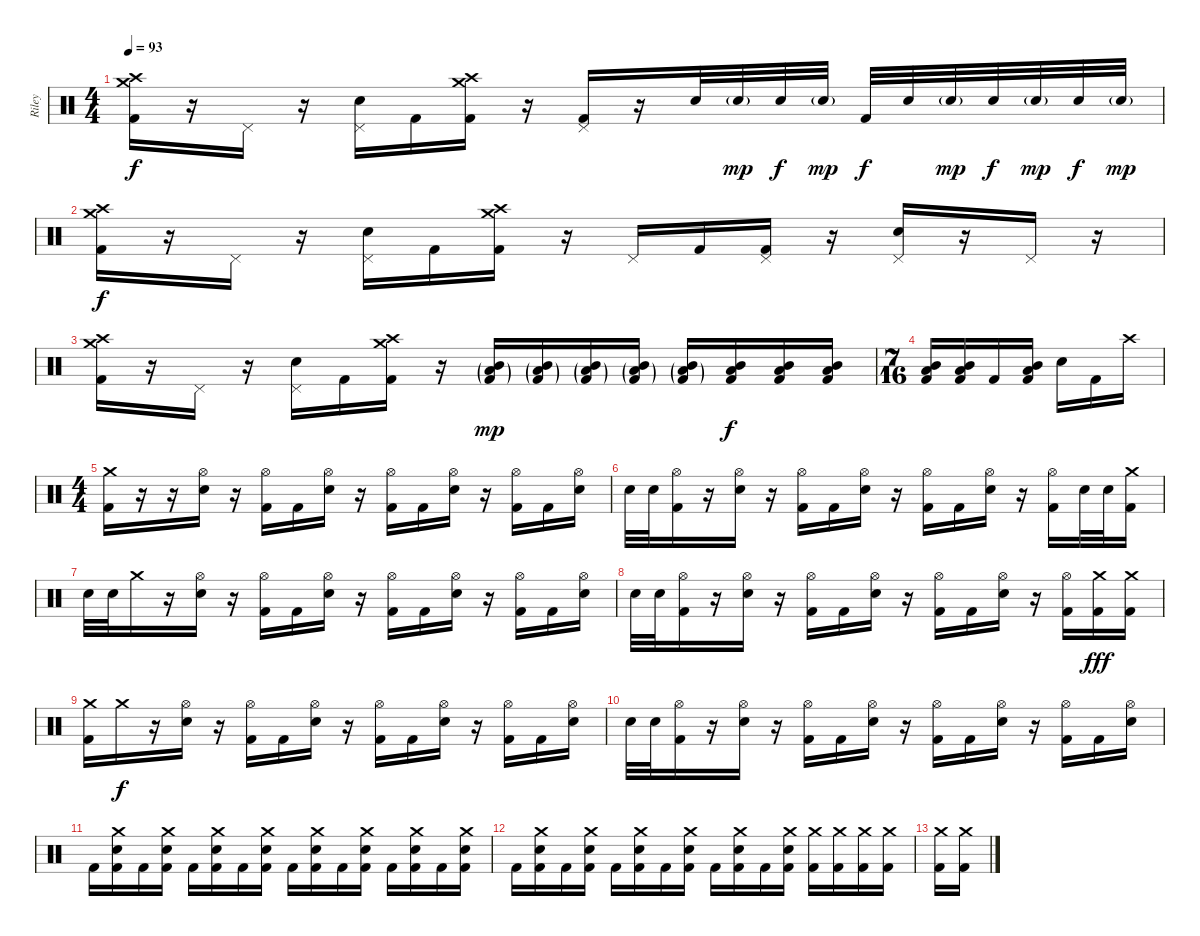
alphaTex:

\track ("Riley" "Riley") {instrument percussion}
\staff {score}
\articulation defaults
\ts (4 4)
\tempo 93
\clef neutral
\ks c
("Crash high (hit)" "Crash medium (hit)" "Kick (hit) 2").16{dy f} r.16 "Pedal Hi-Hat (hit)".16 r.16 ("Pedal Hi-Hat (hit)" "Electric Snare (hit)").16 "Kick (hit) 2".16 ("Crash high (hit)" "Crash medium (hit)" "Kick (hit) 2").16 r.16 ("Pedal Hi-Hat (hit)" "Kick (hit) 2").16 r.16 "Electric Snare (hit)".32 "Electric Snare (hit)"{g}.32{dy mp} "Electric Snare (hit)".32{dy f} "Electric Snare (hit)"{g}.32{dy mp} "Kick (hit) 2".32{dy f} "Electric Snare (hit)".32 "Electric Snare (hit)"{g}.32{dy mp} "Electric Snare (hit)".32{dy f} "Electric Snare (hit)"{g}.32{dy mp} "Electric Snare (hit)".32{dy f} "Electric Snare (hit)"{g}.32{dy mp} |
("Crash high (hit)" "Crash medium (hit)" "Kick (hit) 2").16{dy f} r.16 "Pedal Hi-Hat (hit)".16 r.16 ("Pedal Hi-Hat (hit)" "Electric Snare (hit)").16 "Kick (hit) 2".16 ("Crash high (hit)" "Crash medium (hit)" "Kick (hit) 2").16 r.16 "Pedal Hi-Hat (hit)".16 "Kick (hit) 2".16 ("Pedal Hi-Hat (hit)" "Kick (hit) 2").16 r.16 ("Pedal Hi-Hat (hit)" "Electric Snare (hit)").16 r.16 "Pedal Hi-Hat (hit)".16 r.16 |
("Crash high (hit)" "Crash medium (hit)" "Kick (hit) 2").16 r.16 "Pedal Hi-Hat (hit)".16 r.16 ("Pedal Hi-Hat (hit)" "Electric Snare (hit)").16 "Kick (hit) 2".16 ("Crash high (hit)" "Crash medium (hit)" "Kick (hit) 2").16 r.16 ("Mid Tom (hit)"{g} "Low Tom (hit)"{g} "Kick (hit) 2"{g}).16{dy mp} ("Mid Tom (hit)"{g} "Low Tom (hit)"{g} "Kick (hit) 2"{g}).16 ("Mid Tom (hit)"{g} "Low Tom (hit)"{g} "Kick (hit) 2"{g}).16 ("Mid Tom (hit)"{g} "Low Tom (hit)"{g} "Kick (hit) 2"{g}).16 ("Mid Tom (hit)"{g} "Low Tom (hit)"{g} "Kick (hit) 2"{g}).16 ("Mid Tom (hit)" "Low Tom (hit)" "Kick (hit) 2").16{dy f} ("Mid Tom (hit)" "Low Tom (hit)" "Kick (hit) 2").16 ("Mid Tom (hit)" "Low Tom (hit)" "Kick (hit) 2").16 |
\ts (7 16)
("Mid Tom (hit)" "Low Tom (hit)" "Kick (hit) 2").16 ("Mid Tom (hit)" "Low Tom (hit)" "Kick (hit) 2").16 "Kick (hit) 2".16 ("Mid Tom (hit)" "Low Tom (hit)" "Kick (hit) 2").16 "Electric Snare (hit)".16 "Kick (hit) 2".16 "Crash high (hit)".16 |
\ts (4 4)
("Crash medium (hit)" "Kick (hit) 2").16 r.16 r.16 ("Hi-Hat (open)" "Electric Snare (hit)").16 r.16 ("Hi-Hat (open)" "Kick (hit) 2").16 "Kick (hit) 2".16 ("Hi-Hat (open)" "Electric Snare (hit)").16 r.16 ("Hi-Hat (open)" "Kick (hit) 2").16 "Kick (hit) 2".16 ("Hi-Hat (open)" "Electric Snare (hit)").16 r.16 ("Hi-Hat (open)" "Kick (hit) 2").16 "Kick (hit) 2".16 ("Hi-Hat (open)" "Electric Snare (hit)").16 |
"Electric Snare (hit)".32 "Electric Snare (hit)".32 ("Hi-Hat (open)" "Kick (hit) 2").16 r.16 ("Hi-Hat (open)" "Electric Snare (hit)").16 r.16 ("Hi-Hat (open)" "Kick (hit) 2").16 "Kick (hit) 2".16 ("Hi-Hat (open)" "Electric Snare (hit)").16 r.16 ("Hi-Hat (open)" "Kick (hit) 2").16 "Kick (hit) 2".16 ("Hi-Hat (open)" "Electric Snare (hit)").16 r.16 ("Hi-Hat (open)" "Kick (hit) 2").16 "Electric Snare (hit)".32 "Electric Snare (hit)".32 ("Crash medium (hit)" "Kick (hit) 2").16 |
"Electric Snare (hit)".32 "Electric Snare (hit)".32 "Crash medium (hit)".16 r.16 ("Hi-Hat (open)" "Electric Snare (hit)").16 r.16 ("Hi-Hat (open)" "Kick (hit) 2").16 "Kick (hit) 2".16 ("Hi-Hat (open)" "Electric Snare (hit)").16 r.16 ("Hi-Hat (open)" "Kick (hit) 2").16 "Kick (hit) 2".16 ("Hi-Hat (open)" "Electric Snare (hit)").16 r.16 ("Hi-Hat (open)" "Kick (hit) 2").16 "Kick (hit) 2".16 ("Hi-Hat (open)" "Electric Snare (hit)").16 |
"Electric Snare (hit)".32 "Electric Snare (hit)".32 ("Hi-Hat (open)" "Kick (hit) 2").16 r.16 ("Hi-Hat (open)" "Electric Snare (hit)").16 r.16 ("Hi-Hat (open)" "Kick (hit) 2").16 "Kick (hit) 2".16 ("Hi-Hat (open)" "Electric Snare (hit)").16 r.16 ("Hi-Hat (open)" "Kick (hit) 2").16 "Kick (hit) 2".16 ("Hi-Hat (open)" "Electric Snare (hit)").16 r.16 ("Hi-Hat (open)" "Kick (hit) 2").16 ("Crash medium (hit)" "Kick (hit) 2").16{dy fff} ("Crash medium (hit)" "Kick (hit) 2").16 |
("Crash medium (hit)" "Kick (hit) 2").16 "Crash medium (hit)".16{dy f} r.16 ("Hi-Hat (open)" "Electric Snare (hit)").16 r.16 ("Hi-Hat (open)" "Kick (hit) 2").16 "Kick (hit) 2".16 ("Hi-Hat (open)" "Electric Snare (hit)").16 r.16 ("Hi-Hat (open)" "Kick (hit) 2").16 "Kick (hit) 2".16 ("Hi-Hat (open)" "Electric Snare (hit)").16 r.16 ("Hi-Hat (open)" "Kick (hit) 2").16 "Kick (hit) 2".16 ("Hi-Hat (open)" "Electric Snare (hit)").16 |
"Electric Snare (hit)".32 "Electric Snare (hit)".32 ("Hi-Hat (open)" "Kick (hit) 2").16 r.16 ("Hi-Hat (open)" "Electric Snare (hit)").16 r.16 ("Hi-Hat (open)" "Kick (hit) 2").16 "Kick (hit) 2".16 ("Hi-Hat (open)" "Electric Snare (hit)").16 r.16 ("Hi-Hat (open)" "Kick (hit) 2").16 "Kick (hit) 2".16 ("Hi-Hat (open)" "Electric Snare (hit)").16 r.16 ("Hi-Hat (open)" "Kick (hit) 2").16 "Kick (hit) 2".16 ("Hi-Hat (open)" "Electric Snare (hit)").16 |
"Kick (hit) 2".16 ("Crash medium (hit)" "Electric Snare (hit)" "Kick (hit) 2").16 "Kick (hit) 2".16 ("Crash medium (hit)" "Electric Snare (hit)" "Kick (hit) 2").16 "Kick (hit) 2".16 ("Crash medium (hit)" "Electric Snare (hit)" "Kick (hit) 2").16 "Kick (hit) 2".16 ("Crash medium (hit)" "Electric Snare (hit)" "Kick (hit) 2").16 "Kick (hit) 2".16 ("Crash medium (hit)" "Electric Snare (hit)" "Kick (hit) 2").16 "Kick (hit) 2".16 ("Crash medium (hit)" "Electric Snare (hit)" "Kick (hit) 2").16 "Kick (hit) 2".16 ("Crash medium (hit)" "Electric Snare (hit)" "Kick (hit) 2").16 "Kick (hit) 2".16 ("Crash medium (hit)" "Electric Snare (hit)" "Kick (hit) 2").16 |
"Kick (hit) 2".16 ("Crash medium (hit)" "Electric Snare (hit)" "Kick (hit) 2").16 "Kick (hit) 2".16 ("Crash medium (hit)" "Electric Snare (hit)" "Kick (hit) 2").16 "Kick (hit) 2".16 ("Crash medium (hit)" "Electric Snare (hit)" "Kick (hit) 2").16 "Kick (hit) 2".16 ("Crash medium (hit)" "Electric Snare (hit)" "Kick (hit) 2").16 "Kick (hit) 2".16 ("Crash medium (hit)" "Electric Snare (hit)" "Kick (hit) 2").16 "Kick (hit) 2".16 ("Crash medium (hit)" "Electric Snare (hit)" "Kick (hit) 2").16 ("Crash medium (hit)" "Kick (hit) 2").16 ("Crash medium (hit)" "Kick (hit) 2").16 ("Crash medium (hit)" "Kick (hit) 2").16 ("Crash medium (hit)" "Kick (hit) 2").16 |
("Crash medium (hit)" "Kick (hit) 2").16 ("Crash medium (hit)" "Kick (hit) 2").16
